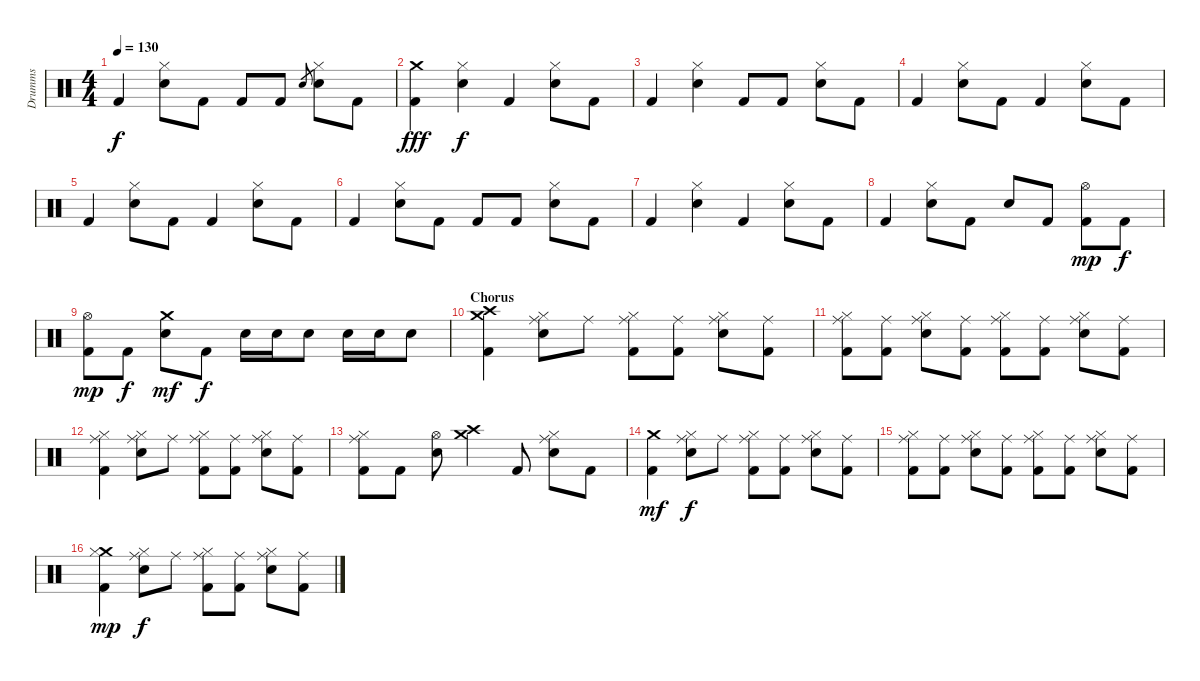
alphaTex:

\track ("Drumms" "Drumms") {instrument percussion}
\staff {score}
\articulation defaults
\ts (4 4)
\tempo 130
\clef neutral
\ks c "Kick (hit) 2".4{dy f}
("Hi-Hat (closed)" "Electric Snare (hit)").8 "Kick (hit) 2".8 "Kick (hit) 2".8 "Kick (hit) 2".8 "Electric Snare (hit)".8{gr} ("Hi-Hat (closed)" "Electric Snare (hit)").8 "Kick (hit) 2".8 |
("Crash medium (hit)" "Kick (hit) 2").4{dy fff} ("Hi-Hat (closed)" "Electric Snare (hit)").4{dy f} "Kick (hit) 2".4 ("Hi-Hat (closed)" "Electric Snare (hit)").8 "Kick (hit) 2".8 |
"Kick (hit) 2".4 ("Hi-Hat (closed)" "Electric Snare (hit)").4 "Kick (hit) 2".8 "Kick (hit) 2".8 ("Hi-Hat (closed)" "Electric Snare (hit)").8 "Kick (hit) 2".8 |
"Kick (hit) 2".4 ("Hi-Hat (closed)" "Electric Snare (hit)").8 "Kick (hit) 2".8 "Kick (hit) 2".4 ("Hi-Hat (closed)" "Electric Snare (hit)").8 "Kick (hit) 2".8 |
"Kick (hit) 2".4 ("Hi-Hat (closed)" "Electric Snare (hit)").8 "Kick (hit) 2".8 "Kick (hit) 2".4 ("Hi-Hat (closed)" "Electric Snare (hit)").8 "Kick (hit) 2".8 |
"Kick (hit) 2".4 ("Hi-Hat (closed)" "Electric Snare (hit)").8 "Kick (hit) 2".8 "Kick (hit) 2".8 "Kick (hit) 2".8 ("Hi-Hat (closed)" "Electric Snare (hit)").8 "Kick (hit) 2".8 |
"Kick (hit) 2".4 ("Hi-Hat (closed)" "Electric Snare (hit)").4 "Kick (hit) 2".4 ("Hi-Hat (closed)" "Electric Snare (hit)").8 "Kick (hit) 2".8 |
"Kick (hit) 2".4 ("Hi-Hat (closed)" "Electric Snare (hit)").8 "Kick (hit) 2".8 "Electric Snare (hit)".8 "Kick (hit) 2".8 ("Hi-Hat (open)" "Kick (hit) 2").8{dy mp} "Kick (hit) 2".8{dy f} |
("Hi-Hat (open)" "Kick (hit) 2").8{dy mp} "Kick (hit) 2".8{dy f} ("Crash medium (hit)" "Electric Snare (hit)").8{dy mf} "Kick (hit) 2".8{dy f} "Electric Snare (hit)".16 "Electric Snare (hit)".16 "Electric Snare (hit)".8 "Electric Snare (hit)".16 "Electric Snare (hit)".16 "Electric Snare (hit)".8 |
\section ("" "Chorus")
("Crash medium (hit)" "Crash high (hit)" "Kick (hit) 2").4 ("Ride (middle)" "Hi-Hat (closed)" "Electric Snare (hit)").8 "Ride (middle)".8 ("Ride (middle)" "Hi-Hat (closed)" "Kick (hit) 2").8 ("Ride (middle)" "Kick (hit) 2").8 ("Ride (middle)" "Hi-Hat (closed)" "Electric Snare (hit)").8 ("Ride (middle)" "Kick (hit) 2").8 |
("Ride (middle)" "Hi-Hat (closed)" "Kick (hit) 2").8 ("Ride (middle)" "Kick (hit) 2").8 ("Ride (middle)" "Hi-Hat (closed)" "Electric Snare (hit)").8 ("Ride (middle)" "Kick (hit) 2").8 ("Ride (middle)" "Hi-Hat (closed)" "Kick (hit) 2").8 ("Ride (middle)" "Kick (hit) 2").8 ("Ride (middle)" "Hi-Hat (closed)" "Electric Snare (hit)").8 ("Ride (middle)" "Kick (hit) 2").8 |
("Ride (middle)" "Hi-Hat (closed)" "Kick (hit) 2").4 ("Ride (middle)" "Hi-Hat (closed)" "Electric Snare (hit)").8 "Ride (middle)".8 ("Ride (middle)" "Hi-Hat (closed)" "Kick (hit) 2").8 ("Ride (middle)" "Kick (hit) 2").8 ("Ride (middle)" "Hi-Hat (closed)" "Electric Snare (hit)").8 ("Ride (middle)" "Kick (hit) 2").8 |
("Ride (middle)" "Hi-Hat (closed)" "Kick (hit) 2").8 "Kick (hit) 2".8 ("Hi-Hat (open)" "Electric Snare (hit)").8 ("Crash medium (hit)" "Crash high (hit)").4 "Kick (hit) 2".8 ("Ride (middle)" "Hi-Hat (closed)" "Electric Snare (hit)").8 "Kick (hit) 2".8 |
("Crash medium (hit)" "Kick (hit) 2").4{dy mf} ("Ride (middle)" "Hi-Hat (closed)" "Electric Snare (hit)").8{dy f} "Ride (middle)".8 ("Ride (middle)" "Hi-Hat (closed)" "Kick (hit) 2").8 ("Ride (middle)" "Kick (hit) 2").8 ("Ride (middle)" "Hi-Hat (closed)" "Electric Snare (hit)").8 ("Ride (middle)" "Kick (hit) 2").8 |
("Ride (middle)" "Hi-Hat (closed)" "Kick (hit) 2").8 ("Ride (middle)" "Kick (hit) 2").8 ("Ride (middle)" "Hi-Hat (closed)" "Electric Snare (hit)").8 ("Ride (middle)" "Kick (hit) 2").8 ("Ride (middle)" "Hi-Hat (closed)" "Kick (hit) 2").8 ("Ride (middle)" "Kick (hit) 2").8 ("Ride (middle)" "Hi-Hat (closed)" "Electric Snare (hit)").8 ("Ride (middle)" "Kick (hit) 2").8 |
("Crash medium (hit)" "Hi-Hat (closed)" "Kick (hit) 2").4{dy mp} ("Ride (middle)" "Hi-Hat (closed)" "Electric Snare (hit)").8{dy f} "Ride (middle)".8 ("Ride (middle)" "Hi-Hat (closed)" "Kick (hit) 2").8 ("Ride (middle)" "Kick (hit) 2").8 ("Ride (middle)" "Hi-Hat (closed)" "Electric Snare (hit)").8 ("Ride (middle)" "Kick (hit) 2").8
